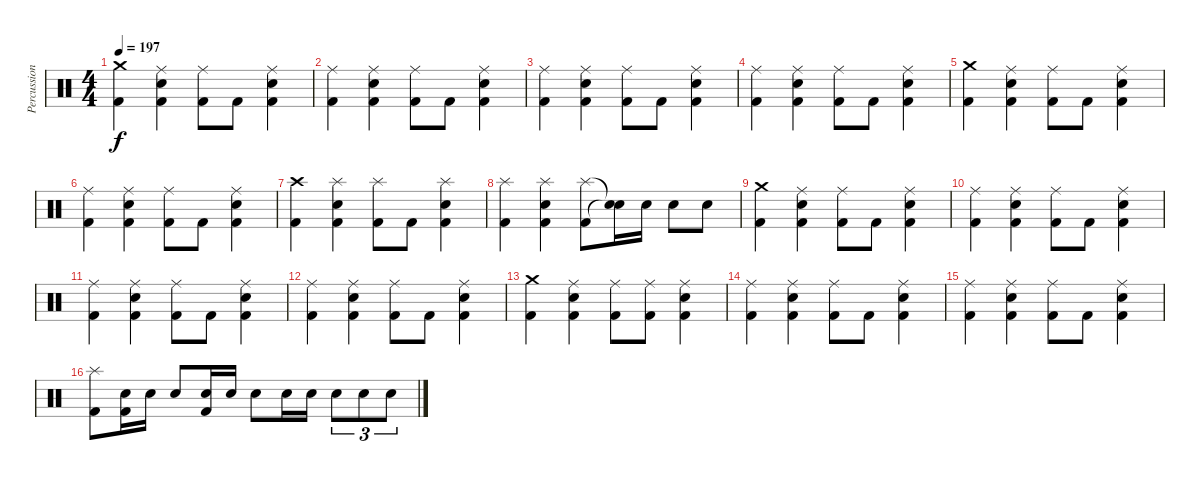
\track ("Percussion" "Percussion") {instrument percussion}
\staff {score}
\articulation defaults
\ts (4 4)
\tempo 197
\clef neutral
\ks c
("Crash medium (hit)" "Kick (hit) 2").4{dy f} ("Snare (hit) 2" "Ride (middle)" "Kick (hit) 2").4 ("Ride (middle)" "Kick (hit) 2").8 "Kick (hit) 2".8 ("Snare (hit) 2" "Ride (middle)" "Kick (hit) 2").4 |
("Ride (middle)" "Kick (hit) 2").4 ("Snare (hit) 2" "Ride (middle)" "Kick (hit) 2").4 ("Ride (middle)" "Kick (hit) 2").8 "Kick (hit) 2".8 ("Snare (hit) 2" "Ride (middle)" "Kick (hit) 2").4 |
("Ride (middle)" "Kick (hit) 2").4 ("Snare (hit) 2" "Ride (middle)" "Kick (hit) 2").4 ("Ride (middle)" "Kick (hit) 2").8 "Kick (hit) 2".8 ("Snare (hit) 2" "Ride (middle)" "Kick (hit) 2").4 |
("Ride (middle)" "Kick (hit) 2").4 ("Snare (hit) 2" "Ride (middle)" "Kick (hit) 2").4 ("Ride (middle)" "Kick (hit) 2").8 "Kick (hit) 2".8 ("Snare (hit) 2" "Ride (middle)" "Kick (hit) 2").4 |
("Crash medium (hit)" "Kick (hit) 2").4 ("Snare (hit) 2" "Ride (middle)" "Kick (hit) 2").4 ("Ride (middle)" "Kick (hit) 2").8 "Kick (hit) 2".8 ("Snare (hit) 2" "Ride (middle)" "Kick (hit) 2").4 |
("Ride (middle)" "Kick (hit) 2").4 ("Snare (hit) 2" "Ride (middle)" "Kick (hit) 2").4 ("Ride (middle)" "Kick (hit) 2").8 "Kick (hit) 2".8 ("Snare (hit) 2" "Ride (middle)" "Kick (hit) 2").4 |
("Crash high (hit)" "Kick (hit) 2").4 ("Snare (hit) 2" "Splash (hit)" "Kick (hit) 2").4 ("Splash (hit)" "Kick (hit) 2").8 "Kick (hit) 2".8 ("Snare (hit) 2" "Splash (hit)" "Kick (hit) 2").4 |
("Splash (hit)" "Kick (hit) 2").4 ("Snare (hit) 2" "Splash (hit)" "Kick (hit) 2").4 ("Splash (hit)" "Kick (hit) 2").8 ("Snare (hit)"{t} "Snare (hit)"{t}).16 "Snare (hit) 2".16 "Snare (hit) 2".8 "Snare (hit) 2".8 |
("Crash medium (hit)" "Kick (hit) 2").4 ("Snare (hit) 2" "Ride (middle)" "Kick (hit) 2").4 ("Ride (middle)" "Kick (hit) 2").8 "Kick (hit) 2".8 ("Snare (hit) 2" "Ride (middle)" "Kick (hit) 2").4 |
("Ride (middle)" "Kick (hit) 2").4 ("Snare (hit) 2" "Ride (middle)" "Kick (hit) 2").4 ("Ride (middle)" "Kick (hit) 2").8 "Kick (hit) 2".8 ("Snare (hit) 2" "Ride (middle)" "Kick (hit) 2").4 |
("Ride (middle)" "Kick (hit) 2").4 ("Snare (hit) 2" "Ride (middle)" "Kick (hit) 2").4 ("Ride (middle)" "Kick (hit) 2").8 "Kick (hit) 2".8 ("Snare (hit) 2" "Ride (middle)" "Kick (hit) 2").4 |
("Ride (middle)" "Kick (hit) 2").4 ("Snare (hit) 2" "Ride (middle)" "Kick (hit) 2").4 ("Ride (middle)" "Kick (hit) 2").8 "Kick (hit) 2".8 ("Snare (hit) 2" "Ride (middle)" "Kick (hit) 2").4 |
("Crash medium (hit)" "Kick (hit) 2").4 ("Snare (hit) 2" "Ride (middle)" "Kick (hit) 2").4 ("Ride (middle)" "Kick (hit) 2").8 ("Ride (middle)" "Kick (hit) 2").8 ("Snare (hit) 2" "Ride (middle)" "Kick (hit) 2").4 |
("Ride (middle)" "Kick (hit) 2").4 ("Snare (hit) 2" "Ride (middle)" "Kick (hit) 2").4 ("Ride (middle)" "Kick (hit) 2").8 "Kick (hit) 2".8 ("Snare (hit) 2" "Ride (middle)" "Kick (hit) 2").4 |
("Ride (middle)" "Kick (hit) 2").4 ("Snare (hit) 2" "Ride (middle)" "Kick (hit) 2").4 ("Ride (middle)" "Kick (hit) 2").8 "Kick (hit) 2".8 ("Snare (hit) 2" "Ride (middle)" "Kick (hit) 2").4 |
("Splash (hit)" "Kick (hit) 2").8 ("Snare (hit) 2" "Kick (hit) 2").16 "Snare (hit) 2".16 "Snare (hit) 2".8 ("Snare (hit) 2" "Kick (hit) 2").16 "Snare (hit) 2".16 "Snare (hit) 2".8 "Snare (hit) 2".16 "Snare (hit) 2".16 "Snare (hit) 2".8{tu (3 2)} "Snare (hit) 2".8{tu (3 2)} "Snare (hit) 2".8{tu (3 2)}
